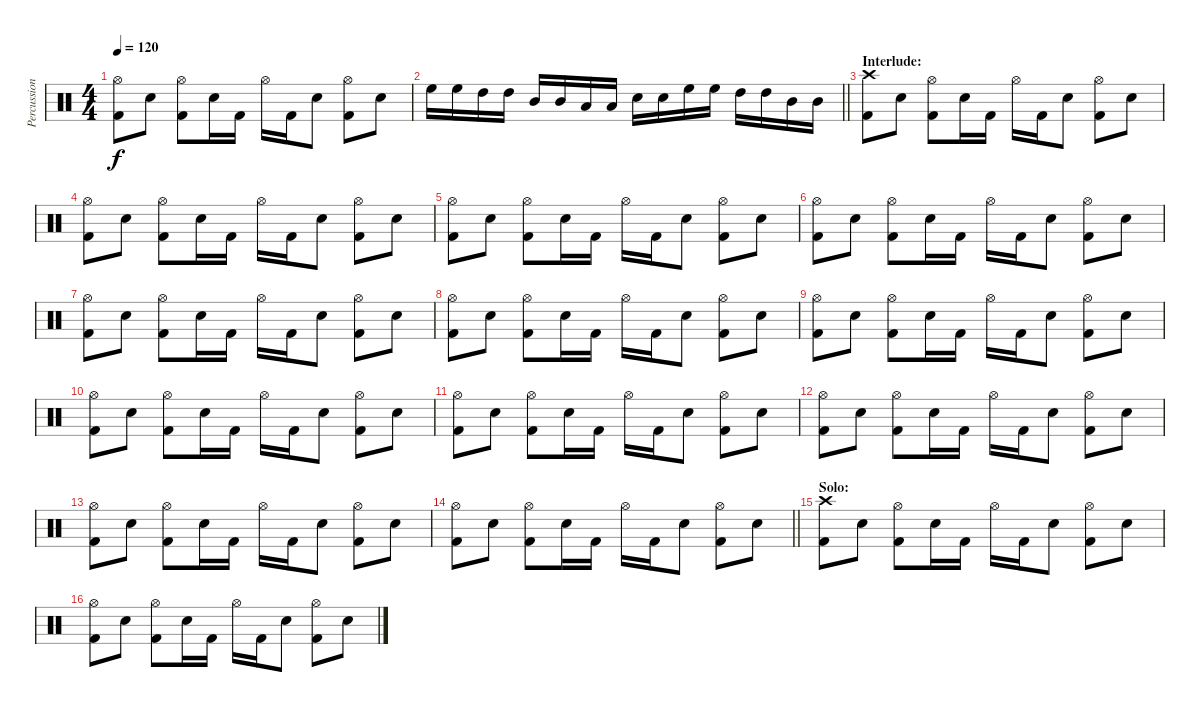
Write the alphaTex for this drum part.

\track ("Percussion" "Percussion") {instrument percussion}
\staff {score}
\articulation defaults
\ts (4 4)
\tempo 120
\clef neutral
\ks c
("Hi-Hat (open)" "Kick (hit) 2").8{dy f} "Electric Snare (hit)".8 ("Hi-Hat (open)" "Kick (hit) 2").8 "Electric Snare (hit)".16 "Kick (hit) 2".16 "Hi-Hat (open)".16 "Kick (hit) 2".16 "Electric Snare (hit)".8 ("Hi-Hat (open)" "Kick (hit) 2").8 "Electric Snare (hit)".8 |
\barLineRight lightlight "High Floor Tom (hit)".16 "High Floor Tom (hit)".16 "High Tom (hit)".16 "High Tom (hit)".16 "Mid Tom (hit)".16 "Mid Tom (hit)".16 "Low Tom (hit)".16 "Low Tom (hit)".16 "Electric Snare (hit)".16 "Electric Snare (hit)".16 "High Floor Tom (hit)".16 "High Floor Tom (hit)".16 "High Tom (hit)".16 "High Tom (hit)".16 "Mid Tom (hit)".16 "Mid Tom (hit)".16
|
\section ("" "Interlude:")
("Crash high (hit)" "Kick (hit) 2").8 "Electric Snare (hit)".8 ("Hi-Hat (open)" "Kick (hit) 2").8 "Electric Snare (hit)".16 "Kick (hit) 2".16 "Hi-Hat (open)".16 "Kick (hit) 2".16 "Electric Snare (hit)".8 ("Hi-Hat (open)" "Kick (hit) 2").8 "Electric Snare (hit)".8 |
("Hi-Hat (open)" "Kick (hit) 2").8 "Electric Snare (hit)".8 ("Hi-Hat (open)" "Kick (hit) 2").8 "Electric Snare (hit)".16 "Kick (hit) 2".16 "Hi-Hat (open)".16 "Kick (hit) 2".16 "Electric Snare (hit)".8 ("Hi-Hat (open)" "Kick (hit) 2").8 "Electric Snare (hit)".8 |
("Hi-Hat (open)" "Kick (hit) 2").8 "Electric Snare (hit)".8 ("Hi-Hat (open)" "Kick (hit) 2").8 "Electric Snare (hit)".16 "Kick (hit) 2".16 "Hi-Hat (open)".16 "Kick (hit) 2".16 "Electric Snare (hit)".8 ("Hi-Hat (open)" "Kick (hit) 2").8 "Electric Snare (hit)".8 |
("Hi-Hat (open)" "Kick (hit) 2").8 "Electric Snare (hit)".8 ("Hi-Hat (open)" "Kick (hit) 2").8 "Electric Snare (hit)".16 "Kick (hit) 2".16 "Hi-Hat (open)".16 "Kick (hit) 2".16 "Electric Snare (hit)".8 ("Hi-Hat (open)" "Kick (hit) 2").8 "Electric Snare (hit)".8 |
("Hi-Hat (open)" "Kick (hit) 2").8 "Electric Snare (hit)".8 ("Hi-Hat (open)" "Kick (hit) 2").8 "Electric Snare (hit)".16 "Kick (hit) 2".16 "Hi-Hat (open)".16 "Kick (hit) 2".16 "Electric Snare (hit)".8 ("Hi-Hat (open)" "Kick (hit) 2").8 "Electric Snare (hit)".8 |
("Hi-Hat (open)" "Kick (hit) 2").8 "Electric Snare (hit)".8 ("Hi-Hat (open)" "Kick (hit) 2").8 "Electric Snare (hit)".16 "Kick (hit) 2".16 "Hi-Hat (open)".16 "Kick (hit) 2".16 "Electric Snare (hit)".8 ("Hi-Hat (open)" "Kick (hit) 2").8 "Electric Snare (hit)".8 |
("Hi-Hat (open)" "Kick (hit) 2").8 "Electric Snare (hit)".8 ("Hi-Hat (open)" "Kick (hit) 2").8 "Electric Snare (hit)".16 "Kick (hit) 2".16 "Hi-Hat (open)".16 "Kick (hit) 2".16 "Electric Snare (hit)".8 ("Hi-Hat (open)" "Kick (hit) 2").8 "Electric Snare (hit)".8 |
("Hi-Hat (open)" "Kick (hit) 2").8 "Electric Snare (hit)".8 ("Hi-Hat (open)" "Kick (hit) 2").8 "Electric Snare (hit)".16 "Kick (hit) 2".16 "Hi-Hat (open)".16 "Kick (hit) 2".16 "Electric Snare (hit)".8 ("Hi-Hat (open)" "Kick (hit) 2").8 "Electric Snare (hit)".8 |
("Hi-Hat (open)" "Kick (hit) 2").8 "Electric Snare (hit)".8 ("Hi-Hat (open)" "Kick (hit) 2").8 "Electric Snare (hit)".16 "Kick (hit) 2".16 "Hi-Hat (open)".16 "Kick (hit) 2".16 "Electric Snare (hit)".8 ("Hi-Hat (open)" "Kick (hit) 2").8 "Electric Snare (hit)".8 |
("Hi-Hat (open)" "Kick (hit) 2").8 "Electric Snare (hit)".8 ("Hi-Hat (open)" "Kick (hit) 2").8 "Electric Snare (hit)".16 "Kick (hit) 2".16 "Hi-Hat (open)".16 "Kick (hit) 2".16 "Electric Snare (hit)".8 ("Hi-Hat (open)" "Kick (hit) 2").8 "Electric Snare (hit)".8 |
("Hi-Hat (open)" "Kick (hit) 2").8 "Electric Snare (hit)".8 ("Hi-Hat (open)" "Kick (hit) 2").8 "Electric Snare (hit)".16 "Kick (hit) 2".16 "Hi-Hat (open)".16 "Kick (hit) 2".16 "Electric Snare (hit)".8 ("Hi-Hat (open)" "Kick (hit) 2").8 "Electric Snare (hit)".8 |
\barLineRight lightlight
("Hi-Hat (open)" "Kick (hit) 2").8 "Electric Snare (hit)".8 ("Hi-Hat (open)" "Kick (hit) 2").8 "Electric Snare (hit)".16 "Kick (hit) 2".16 "Hi-Hat (open)".16 "Kick (hit) 2".16 "Electric Snare (hit)".8 ("Hi-Hat (open)" "Kick (hit) 2").8 "Electric Snare (hit)".8 |
\section ("" "Solo:")
("Crash high (hit)" "Kick (hit) 2").8 "Electric Snare (hit)".8 ("Hi-Hat (open)" "Kick (hit) 2").8 "Electric Snare (hit)".16 "Kick (hit) 2".16 "Hi-Hat (open)".16 "Kick (hit) 2".16 "Electric Snare (hit)".8 ("Hi-Hat (open)" "Kick (hit) 2").8 "Electric Snare (hit)".8 |
("Hi-Hat (open)" "Kick (hit) 2").8 "Electric Snare (hit)".8 ("Hi-Hat (open)" "Kick (hit) 2").8 "Electric Snare (hit)".16 "Kick (hit) 2".16 "Hi-Hat (open)".16 "Kick (hit) 2".16 "Electric Snare (hit)".8 ("Hi-Hat (open)" "Kick (hit) 2").8 "Electric Snare (hit)".8
